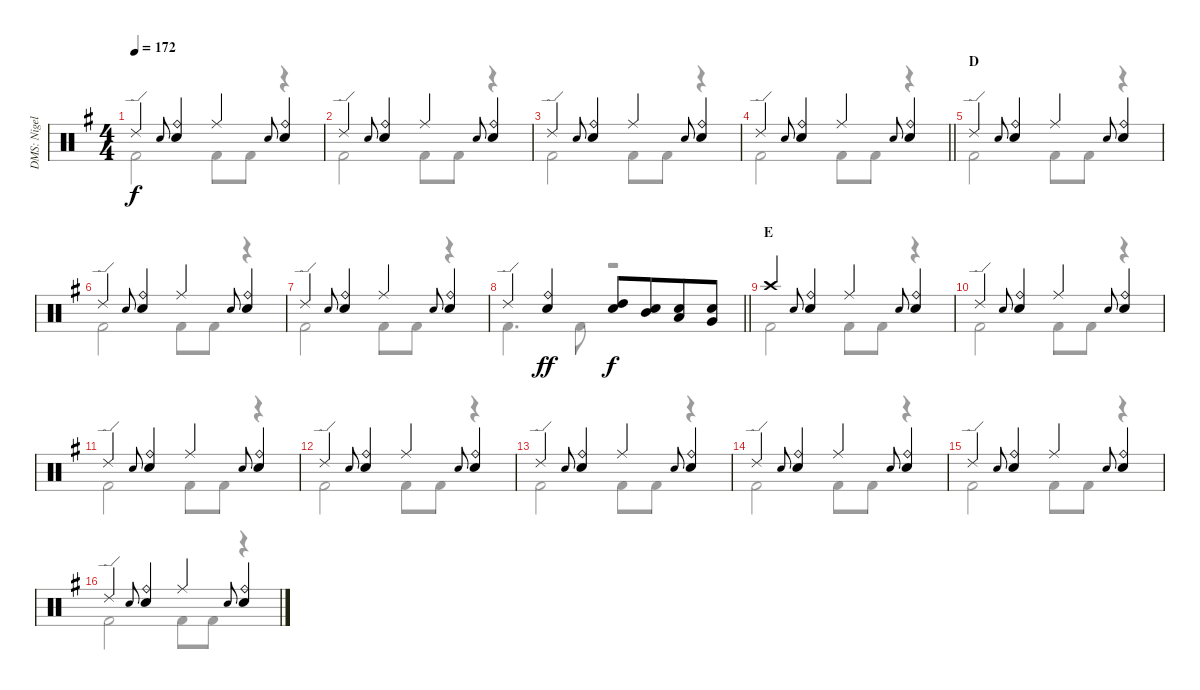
\track ("DMS: Nigel Olsson" "DMS: Nigel") {instrument percussion}
\staff {score}
\articulation defaults
\voice
\ts (4 4)
\tempo 172
\clef neutral
\ks g "Ride (edge) 2".4{dy f} "Snare (hit) 2".8{gr onbeat}
("Ride (bell)" "Electric Snare (hit)").4 "Ride (middle)".4 "Snare (hit) 2".8{gr onbeat} ("Ride (bell)" "Electric Snare (hit)").4 |
"Ride (edge) 2".4 "Snare (hit) 2".8{gr onbeat} ("Ride (bell)" "Electric Snare (hit)").4 "Ride (middle)".4 "Snare (hit) 2".8{gr onbeat} ("Ride (bell)" "Electric Snare (hit)").4 |
"Ride (edge) 2".4 "Snare (hit) 2".8{gr onbeat} ("Ride (bell)" "Electric Snare (hit)").4 "Ride (middle)".4 "Snare (hit) 2".8{gr onbeat} ("Ride (bell)" "Electric Snare (hit)").4 |
\barLineRight lightlight "Ride (edge) 2".4 "Snare (hit) 2".8{gr onbeat}
("Ride (bell)" "Electric Snare (hit)").4 "Ride (middle)".4 "Snare (hit) 2".8{gr onbeat} ("Ride (bell)" "Electric Snare (hit)").4 |
\section ("" "D")
"Ride (edge) 2".4 "Snare (hit) 2".8{gr onbeat} ("Ride (bell)" "Electric Snare (hit)").4 "Ride (middle)".4 "Snare (hit) 2".8{gr onbeat} ("Ride (bell)" "Electric Snare (hit)").4 |
"Ride (edge) 2".4 "Snare (hit) 2".8{gr onbeat} ("Ride (bell)" "Electric Snare (hit)").4 "Ride (middle)".4 "Snare (hit) 2".8{gr onbeat} ("Ride (bell)" "Electric Snare (hit)").4 |
"Ride (edge) 2".4 "Snare (hit) 2".8{gr onbeat} ("Ride (bell)" "Electric Snare (hit)").4 "Ride (middle)".4 "Snare (hit) 2".8{gr onbeat} ("Ride (bell)" "Electric Snare (hit)").4 |
\barLineRight lightlight "Ride (edge) 2".4
("Ride (bell)" "Electric Snare (hit)").4{dy ff} ("Electric Snare (hit)" "High Tom (hit)").8{dy f} ("Electric Snare (hit)" "Mid Tom (hit)").8{beam merge} ("Electric Snare (hit)" "Low Tom (hit)").8 ("Electric Snare (hit)" "Very Low Tom (hit)").8 |
\section ("" "E")
"Crash high (hit)".4 "Snare (hit) 2".8{gr onbeat} ("Ride (bell)" "Electric Snare (hit)").4 "Ride (middle)".4 "Snare (hit) 2".8{gr onbeat} ("Ride (bell)" "Electric Snare (hit)").4 |
"Ride (edge) 2".4 "Snare (hit) 2".8{gr onbeat} ("Ride (bell)" "Electric Snare (hit)").4 "Ride (middle)".4 "Snare (hit) 2".8{gr onbeat} ("Ride (bell)" "Electric Snare (hit)").4 |
"Ride (edge) 2".4 "Snare (hit) 2".8{gr onbeat} ("Ride (bell)" "Electric Snare (hit)").4 "Ride (middle)".4 "Snare (hit) 2".8{gr onbeat} ("Ride (bell)" "Electric Snare (hit)").4 |
"Ride (edge) 2".4 "Snare (hit) 2".8{gr onbeat} ("Ride (bell)" "Electric Snare (hit)").4 "Ride (middle)".4 "Snare (hit) 2".8{gr onbeat} ("Ride (bell)" "Electric Snare (hit)").4 |
"Ride (edge) 2".4 "Snare (hit) 2".8{gr onbeat} ("Ride (bell)" "Electric Snare (hit)").4 "Ride (middle)".4 "Snare (hit) 2".8{gr onbeat} ("Ride (bell)" "Electric Snare (hit)").4 |
"Ride (edge) 2".4 "Snare (hit) 2".8{gr onbeat} ("Ride (bell)" "Electric Snare (hit)").4 "Ride (middle)".4 "Snare (hit) 2".8{gr onbeat} ("Ride (bell)" "Electric Snare (hit)").4 |
"Ride (edge) 2".4 "Snare (hit) 2".8{gr onbeat} ("Ride (bell)" "Electric Snare (hit)").4 "Ride (middle)".4 "Snare (hit) 2".8{gr onbeat} ("Ride (bell)" "Electric Snare (hit)").4 |
"Ride (edge) 2".4 "Snare (hit) 2".8{gr onbeat} ("Ride (bell)" "Electric Snare (hit)").4 "Ride (middle)".4 "Snare (hit) 2".8{gr onbeat} ("Ride (bell)" "Electric Snare (hit)").4
\voice
\clef neutral
\ottava regular
\simile none
\ks g "Kick (hit) 2".2{dy f} "Kick (hit) 2".8 "Kick (hit) 2".8
r.4 |
"Kick (hit) 2".2 "Kick (hit) 2".8 "Kick (hit) 2".8 r.4 |
"Kick (hit) 2".2 "Kick (hit) 2".8 "Kick (hit) 2".8 r.4 |
\barLineRight lightlight "Kick (hit) 2".2 "Kick (hit) 2".8 "Kick (hit) 2".8
r.4 |
"Kick (hit) 2".2 "Kick (hit) 2".8 "Kick (hit) 2".8 r.4 |
"Kick (hit) 2".2 "Kick (hit) 2".8 "Kick (hit) 2".8 r.4 |
"Kick (hit) 2".2 "Kick (hit) 2".8 "Kick (hit) 2".8 r.4 |
\barLineRight lightlight "Kick (hit) 2".4{d} "Kick (hit) 2".8
r.2 |
"Kick (hit) 2".2 "Kick (hit) 2".8 "Kick (hit) 2".8 r.4 |
"Kick (hit) 2".2 "Kick (hit) 2".8 "Kick (hit) 2".8 r.4 |
"Kick (hit) 2".2 "Kick (hit) 2".8 "Kick (hit) 2".8 r.4 |
"Kick (hit) 2".2 "Kick (hit) 2".8 "Kick (hit) 2".8 r.4 |
"Kick (hit) 2".2 "Kick (hit) 2".8 "Kick (hit) 2".8 r.4 |
"Kick (hit) 2".2 "Kick (hit) 2".8 "Kick (hit) 2".8 r.4 |
"Kick (hit) 2".2 "Kick (hit) 2".8 "Kick (hit) 2".8 r.4 |
"Kick (hit) 2".2 "Kick (hit) 2".8 "Kick (hit) 2".8 r.4
